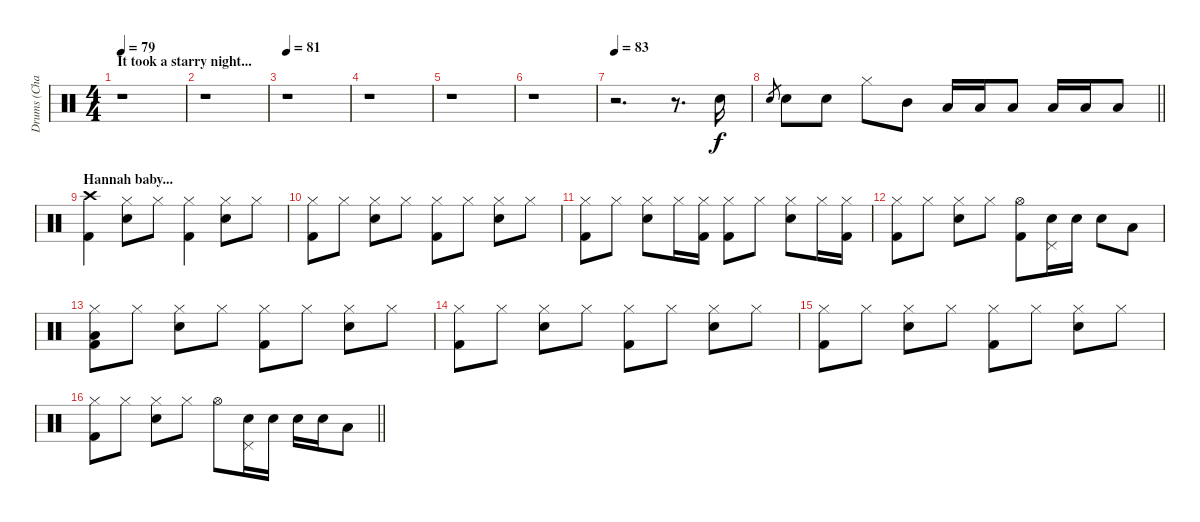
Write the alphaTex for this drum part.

\track ("Drums (Charlie)" "Drums (Cha") {instrument percussion}
\staff {score}
\articulation defaults
\ts (4 4)
\section ("" "It took a starry night...")
\tempo 79
\clef neutral
\ks c
r.1{dy f} |
r.1 |
\tempo 81
r.1 |
r.1 |
r.1 |
r.1 |
\tempo 83
r.2{d} r.8{d} "Snare (hit) 2".16 |
\barLineRight lightlight "Snare (hit) 2".8{gr} "Snare (hit) 2".8 "Snare (hit) 2".8 "Hi-Hat (closed)".8 "Mid Tom (hit)".8 "Low Tom (hit)".16 "Low Tom (hit)".16 "Low Tom (hit)".8 "Low Tom (hit)".16 "Low Tom (hit)".16 "Low Tom (hit)".8
|
\section ("" "Hannah baby...")
("Crash high (hit)" "Kick (hit) 2").4 ("Hi-Hat (closed)" "Snare (hit) 2").8 "Hi-Hat (closed)".8 ("Hi-Hat (closed)" "Kick (hit) 2").4 ("Hi-Hat (closed)" "Snare (hit) 2").8 "Hi-Hat (closed)".8 |
("Hi-Hat (closed)" "Kick (hit) 2").8 "Hi-Hat (closed)".8 ("Hi-Hat (closed)" "Snare (hit) 2").8 "Hi-Hat (closed)".8 ("Hi-Hat (closed)" "Kick (hit) 2").8 "Hi-Hat (closed)".8 ("Hi-Hat (closed)" "Snare (hit) 2").8 "Hi-Hat (closed)".8 |
("Hi-Hat (closed)" "Kick (hit) 2").8 "Hi-Hat (closed)".8 ("Hi-Hat (closed)" "Snare (hit) 2").8 "Hi-Hat (closed)".16 ("Hi-Hat (closed)" "Kick (hit) 2").16 ("Hi-Hat (closed)" "Kick (hit) 2").8 "Hi-Hat (closed)".8 ("Hi-Hat (closed)" "Snare (hit) 2").8 "Hi-Hat (closed)".16 ("Hi-Hat (closed)" "Kick (hit) 2").16 |
("Hi-Hat (closed)" "Kick (hit) 2").8 "Hi-Hat (closed)".8 ("Hi-Hat (closed)" "Snare (hit) 2").8 "Hi-Hat (closed)".8 ("Hi-Hat (open)" "Kick (hit) 2").8 ("Pedal Hi-Hat (hit)" "Snare (hit) 2").16 "Snare (hit) 2".16 "Snare (hit) 2".8 "Low Tom (hit)".8 |
("Hi-Hat (closed)" "Low Floor Tom (hit)" "Kick (hit) 2").8 "Hi-Hat (closed)".8 ("Hi-Hat (closed)" "Snare (hit) 2").8 "Hi-Hat (closed)".8 ("Hi-Hat (closed)" "Kick (hit) 2").8 "Hi-Hat (closed)".8 ("Hi-Hat (closed)" "Snare (hit) 2").8 "Hi-Hat (closed)".8 |
("Hi-Hat (closed)" "Kick (hit) 2").8 "Hi-Hat (closed)".8 ("Hi-Hat (closed)" "Snare (hit) 2").8 "Hi-Hat (closed)".8 ("Hi-Hat (closed)" "Kick (hit) 2").8 "Hi-Hat (closed)".8 ("Hi-Hat (closed)" "Snare (hit) 2").8 "Hi-Hat (closed)".8 |
("Hi-Hat (closed)" "Kick (hit) 2").8 "Hi-Hat (closed)".8 ("Hi-Hat (closed)" "Snare (hit) 2").8 "Hi-Hat (closed)".8 ("Hi-Hat (closed)" "Kick (hit) 2").8 "Hi-Hat (closed)".8 ("Hi-Hat (closed)" "Snare (hit) 2").8 "Hi-Hat (closed)".8 |
\barLineRight lightlight
("Hi-Hat (closed)" "Kick (hit) 2").8 "Hi-Hat (closed)".8 ("Hi-Hat (closed)" "Snare (hit) 2").8 "Hi-Hat (closed)".8 "Hi-Hat (open)".8 ("Pedal Hi-Hat (hit)" "Snare (hit) 2").16 "Snare (hit) 2".16 "Snare (hit) 2".16 "Snare (hit) 2".16 "Low Tom (hit)".8
